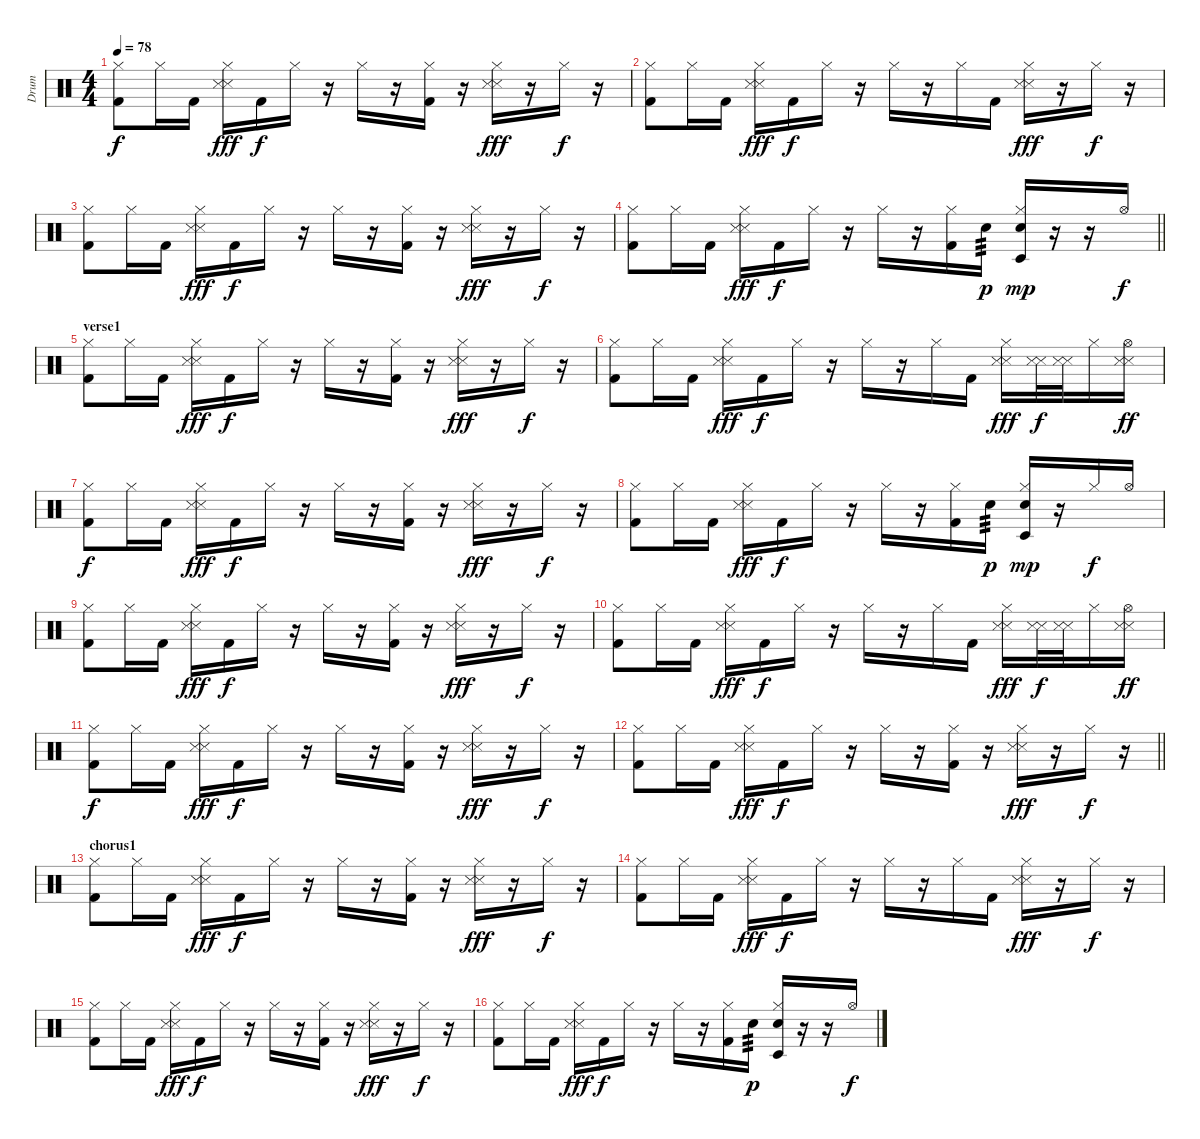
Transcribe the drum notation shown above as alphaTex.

\track ("Drum" "Drum") {instrument percussion}
\staff {score}
\articulation defaults
\ts (4 4)
\tempo 78
\clef neutral
\ks c
("Hi-Hat (closed)" "Kick (hit) 2").8{dy f} "Hi-Hat (closed)".16 "Kick (hit) 2".16 ("Hi-Hat (closed)" "Snare (side stick) 3" "Snare (side stick) 3").16{dy fff} "Kick (hit) 2".16{dy f} "Hi-Hat (closed)".16 r.16 "Hi-Hat (closed)".16 r.16 ("Hi-Hat (closed)" "Kick (hit) 2").16 r.16 ("Hi-Hat (closed)" "Snare (side stick) 3" "Snare (side stick) 3").16{dy fff} r.16 "Hi-Hat (closed)".16{dy f} r.16 |
("Hi-Hat (closed)" "Kick (hit) 2").8 "Hi-Hat (closed)".16 "Kick (hit) 2".16 ("Hi-Hat (closed)" "Snare (side stick) 3" "Snare (side stick) 3").16{dy fff} "Kick (hit) 2".16{dy f} "Hi-Hat (closed)".16 r.16 "Hi-Hat (closed)".16 r.16 "Hi-Hat (closed)".16 "Kick (hit) 2".16 ("Hi-Hat (closed)" "Snare (side stick) 3" "Snare (side stick) 3").16{dy fff} r.16 "Hi-Hat (closed)".16{dy f} r.16 |
("Hi-Hat (closed)" "Kick (hit) 2").8 "Hi-Hat (closed)".16 "Kick (hit) 2".16 ("Hi-Hat (closed)" "Snare (side stick) 3" "Snare (side stick) 3").16{dy fff} "Kick (hit) 2".16{dy f} "Hi-Hat (closed)".16 r.16 "Hi-Hat (closed)".16 r.16 ("Hi-Hat (closed)" "Kick (hit) 2").16 r.16 ("Hi-Hat (closed)" "Snare (side stick) 3" "Snare (side stick) 3").16{dy fff} r.16 "Hi-Hat (closed)".16{dy f} r.16 |
\barLineRight lightlight
("Hi-Hat (closed)" "Kick (hit) 2").8 "Hi-Hat (closed)".16 "Kick (hit) 2".16 ("Hi-Hat (closed)" "Snare (side stick) 3" "Snare (side stick) 3").16{dy fff} "Kick (hit) 2".16{dy f} "Hi-Hat (closed)".16 r.16 "Hi-Hat (closed)".16 r.16 ("Hi-Hat (closed)" "Kick (hit) 2").16 "Snare (hit) 2".16{tp 3 dy p} ("Hi-Hat (closed)" "Timbale low (hit)" "Snare (hit) 2").16{dy mp} r.16 r.16 "Hi-Hat (open)".16{dy f} |
\section ("" "verse1")
("Hi-Hat (closed)" "Kick (hit) 2").8 "Hi-Hat (closed)".16 "Kick (hit) 2".16 ("Hi-Hat (closed)" "Snare (side stick) 3" "Snare (side stick) 3").16{dy fff} "Kick (hit) 2".16{dy f} "Hi-Hat (closed)".16 r.16 "Hi-Hat (closed)".16 r.16 ("Hi-Hat (closed)" "Kick (hit) 2").16 r.16 ("Hi-Hat (closed)" "Snare (side stick) 3" "Snare (side stick) 3").16{dy fff} r.16 "Hi-Hat (closed)".16{dy f} r.16 |
("Hi-Hat (closed)" "Kick (hit) 2").8 "Hi-Hat (closed)".16 "Kick (hit) 2".16 ("Hi-Hat (closed)" "Snare (side stick) 3" "Snare (side stick) 3").16{dy fff} "Kick (hit) 2".16{dy f} "Hi-Hat (closed)".16 r.16 "Hi-Hat (closed)".16 r.16 "Hi-Hat (closed)".16 "Kick (hit) 2".16 ("Hi-Hat (closed)" "Snare (side stick) 3" "Snare (side stick) 3").16{dy fff} ("Snare (side stick) 3" "Snare (side stick) 3").32{dy f} ("Snare (side stick) 3" "Snare (side stick) 3").32 "Hi-Hat (closed)".16 ("Hi-Hat (open)" "Snare (side stick) 3" "Snare (side stick) 3").16{dy ff} |
("Hi-Hat (closed)" "Kick (hit) 2").8{dy f} "Hi-Hat (closed)".16 "Kick (hit) 2".16 ("Hi-Hat (closed)" "Snare (side stick) 3" "Snare (side stick) 3").16{dy fff} "Kick (hit) 2".16{dy f} "Hi-Hat (closed)".16 r.16 "Hi-Hat (closed)".16 r.16 ("Hi-Hat (closed)" "Kick (hit) 2").16 r.16 ("Hi-Hat (closed)" "Snare (side stick) 3" "Snare (side stick) 3").16{dy fff} r.16 "Hi-Hat (closed)".16{dy f} r.16 |
("Hi-Hat (closed)" "Kick (hit) 2").8 "Hi-Hat (closed)".16 "Kick (hit) 2".16 ("Hi-Hat (closed)" "Snare (side stick) 3" "Snare (side stick) 3").16{dy fff} "Kick (hit) 2".16{dy f} "Hi-Hat (closed)".16 r.16 "Hi-Hat (closed)".16 r.16 ("Hi-Hat (closed)" "Kick (hit) 2").16 "Snare (hit) 2".16{tp 3 dy p} ("Hi-Hat (closed)" "Timbale low (hit)" "Snare (hit) 2").16{dy mp} r.16 "Hi-Hat (closed)".16{dy f} "Hi-Hat (open)".16 |
("Hi-Hat (closed)" "Kick (hit) 2").8 "Hi-Hat (closed)".16 "Kick (hit) 2".16 ("Hi-Hat (closed)" "Snare (side stick) 3" "Snare (side stick) 3").16{dy fff} "Kick (hit) 2".16{dy f} "Hi-Hat (closed)".16 r.16 "Hi-Hat (closed)".16 r.16 ("Hi-Hat (closed)" "Kick (hit) 2").16 r.16 ("Hi-Hat (closed)" "Snare (side stick) 3" "Snare (side stick) 3").16{dy fff} r.16 "Hi-Hat (closed)".16{dy f} r.16 |
("Hi-Hat (closed)" "Kick (hit) 2").8 "Hi-Hat (closed)".16 "Kick (hit) 2".16 ("Hi-Hat (closed)" "Snare (side stick) 3" "Snare (side stick) 3").16{dy fff} "Kick (hit) 2".16{dy f} "Hi-Hat (closed)".16 r.16 "Hi-Hat (closed)".16 r.16 "Hi-Hat (closed)".16 "Kick (hit) 2".16 ("Hi-Hat (closed)" "Snare (side stick) 3" "Snare (side stick) 3").16{dy fff} ("Snare (side stick) 3" "Snare (side stick) 3").32{dy f} ("Snare (side stick) 3" "Snare (side stick) 3").32 "Hi-Hat (closed)".16 ("Hi-Hat (open)" "Snare (side stick) 3" "Snare (side stick) 3").16{dy ff} |
("Hi-Hat (closed)" "Kick (hit) 2").8{dy f} "Hi-Hat (closed)".16 "Kick (hit) 2".16 ("Hi-Hat (closed)" "Snare (side stick) 3" "Snare (side stick) 3").16{dy fff} "Kick (hit) 2".16{dy f} "Hi-Hat (closed)".16 r.16 "Hi-Hat (closed)".16 r.16 ("Hi-Hat (closed)" "Kick (hit) 2").16 r.16 ("Hi-Hat (closed)" "Snare (side stick) 3" "Snare (side stick) 3").16{dy fff} r.16 "Hi-Hat (closed)".16{dy f} r.16 |
\barLineRight lightlight
("Hi-Hat (closed)" "Kick (hit) 2").8 "Hi-Hat (closed)".16 "Kick (hit) 2".16 ("Hi-Hat (closed)" "Snare (side stick) 3" "Snare (side stick) 3").16{dy fff} "Kick (hit) 2".16{dy f} "Hi-Hat (closed)".16 r.16 "Hi-Hat (closed)".16 r.16 ("Hi-Hat (closed)" "Kick (hit) 2").16 r.16 ("Hi-Hat (closed)" "Snare (side stick) 3" "Snare (side stick) 3").16{dy fff} r.16 "Hi-Hat (closed)".16{dy f} r.16 |
\section ("" "chorus1")
("Hi-Hat (closed)" "Kick (hit) 2").8 "Hi-Hat (closed)".16 "Kick (hit) 2".16 ("Hi-Hat (closed)" "Snare (side stick) 3" "Snare (side stick) 3").16{dy fff} "Kick (hit) 2".16{dy f} "Hi-Hat (closed)".16 r.16 "Hi-Hat (closed)".16 r.16 ("Hi-Hat (closed)" "Kick (hit) 2").16 r.16 ("Hi-Hat (closed)" "Snare (side stick) 3" "Snare (side stick) 3").16{dy fff} r.16 "Hi-Hat (closed)".16{dy f} r.16 |
("Hi-Hat (closed)" "Kick (hit) 2").8 "Hi-Hat (closed)".16 "Kick (hit) 2".16 ("Hi-Hat (closed)" "Snare (side stick) 3" "Snare (side stick) 3").16{dy fff} "Kick (hit) 2".16{dy f} "Hi-Hat (closed)".16 r.16 "Hi-Hat (closed)".16 r.16 "Hi-Hat (closed)".16 "Kick (hit) 2".16 ("Hi-Hat (closed)" "Snare (side stick) 3" "Snare (side stick) 3").16{dy fff} r.16 "Hi-Hat (closed)".16{dy f} r.16 |
("Hi-Hat (closed)" "Kick (hit) 2").8 "Hi-Hat (closed)".16 "Kick (hit) 2".16 ("Hi-Hat (closed)" "Snare (side stick) 3" "Snare (side stick) 3").16{dy fff} "Kick (hit) 2".16{dy f} "Hi-Hat (closed)".16 r.16 "Hi-Hat (closed)".16 r.16 ("Hi-Hat (closed)" "Kick (hit) 2").16 r.16 ("Hi-Hat (closed)" "Snare (side stick) 3" "Snare (side stick) 3").16{dy fff} r.16 "Hi-Hat (closed)".16{dy f} r.16 |
("Hi-Hat (closed)" "Kick (hit) 2").8 "Hi-Hat (closed)".16 "Kick (hit) 2".16 ("Hi-Hat (closed)" "Snare (side stick) 3" "Snare (side stick) 3").16{dy fff} "Kick (hit) 2".16{dy f} "Hi-Hat (closed)".16 r.16 "Hi-Hat (closed)".16 r.16 ("Hi-Hat (closed)" "Kick (hit) 2").16 "Snare (hit) 2".16{tp 3 dy p} ("Hi-Hat (closed)" "Timbale low (hit)" "Snare (hit) 2").16 r.16 r.16 "Hi-Hat (open)".16{dy f}
